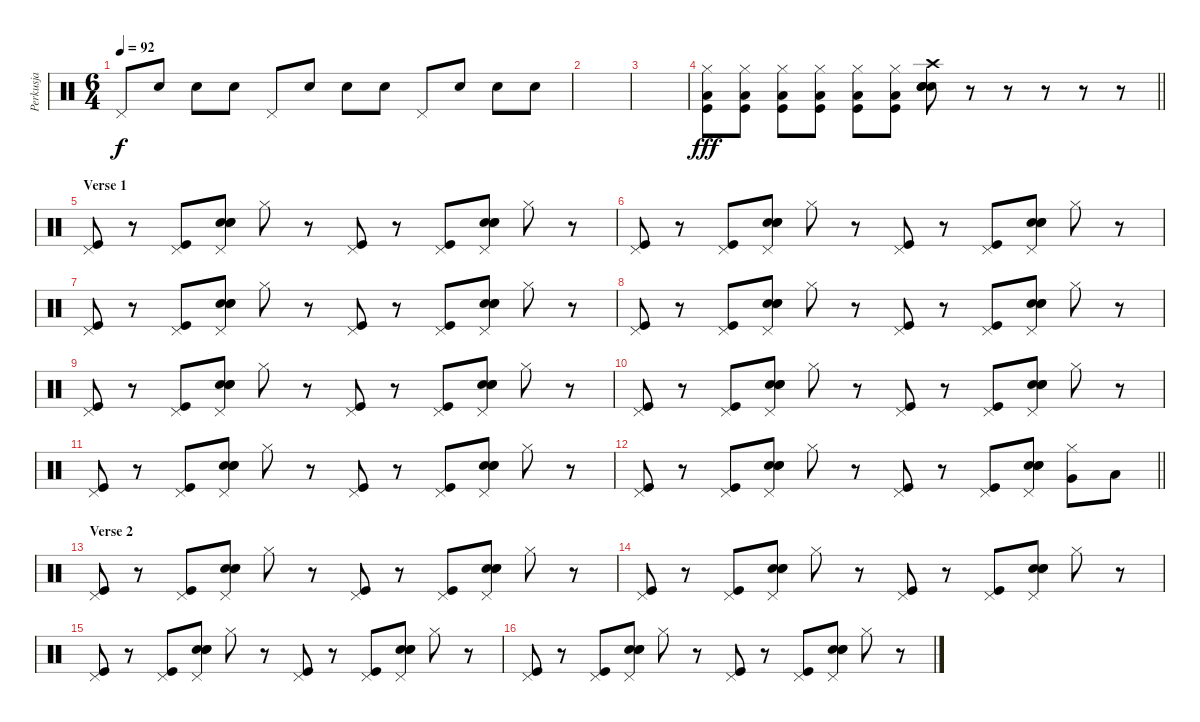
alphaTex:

\track ("Perkusja" "Perkusja") {instrument percussion}
\staff {score}
\articulation defaults
\ts (6 4)
\tempo 92
\clef neutral
\ks c "Pedal Hi-Hat (hit)".8{dy f} "Electric Snare (hit)".8 "Electric Snare (hit)".8 "Electric Snare (hit)".8 "Pedal Hi-Hat (hit)".8 "Electric Snare (hit)".8 "Electric Snare (hit)".8 "Electric Snare (hit)".8 "Pedal Hi-Hat (hit)".8 "Electric Snare (hit)".8 "Electric Snare (hit)".8 "Electric Snare (hit)".8
|
|
|
\barLineRight lightlight
("Hi-Hat (closed)" "Low Tom (hit)" "Kick (hit)").8{dy fff} ("Hi-Hat (closed)" "Low Tom (hit)" "Kick (hit)").8 ("Hi-Hat (closed)" "Low Tom (hit)" "Kick (hit)").8 ("Hi-Hat (closed)" "Low Tom (hit)" "Kick (hit)").8 ("Hi-Hat (closed)" "Low Tom (hit)" "Kick (hit)").8 ("Hi-Hat (closed)" "Low Tom (hit)" "Kick (hit)").8 ("Crash high (hit)" "Electric Snare (hit)" "Electric Snare (hit)" "Electric Snare (hit)").8 r.8 r.8 r.8 r.8 r.8 |
\section ("" "Verse 1")
("Pedal Hi-Hat (hit)" "Kick (hit)").8 r.8 ("Pedal Hi-Hat (hit)" "Kick (hit)").8 ("Pedal Hi-Hat (hit)" "Electric Snare (hit)" "Electric Snare (hit)" "Electric Snare (hit)").8 "Hi-Hat (closed)".8 r.8 ("Pedal Hi-Hat (hit)" "Kick (hit)").8 r.8 ("Pedal Hi-Hat (hit)" "Kick (hit)").8 ("Pedal Hi-Hat (hit)" "Electric Snare (hit)" "Electric Snare (hit)" "Electric Snare (hit)").8 "Hi-Hat (closed)".8 r.8 |
("Pedal Hi-Hat (hit)" "Kick (hit)").8 r.8 ("Pedal Hi-Hat (hit)" "Kick (hit)").8 ("Pedal Hi-Hat (hit)" "Electric Snare (hit)" "Electric Snare (hit)" "Electric Snare (hit)").8 "Hi-Hat (closed)".8 r.8 ("Pedal Hi-Hat (hit)" "Kick (hit)").8 r.8 ("Pedal Hi-Hat (hit)" "Kick (hit)").8 ("Pedal Hi-Hat (hit)" "Electric Snare (hit)" "Electric Snare (hit)" "Electric Snare (hit)").8 "Hi-Hat (closed)".8 r.8 |
("Pedal Hi-Hat (hit)" "Kick (hit)").8 r.8 ("Pedal Hi-Hat (hit)" "Kick (hit)").8 ("Pedal Hi-Hat (hit)" "Electric Snare (hit)" "Electric Snare (hit)" "Electric Snare (hit)").8 "Hi-Hat (closed)".8 r.8 ("Pedal Hi-Hat (hit)" "Kick (hit)").8 r.8 ("Pedal Hi-Hat (hit)" "Kick (hit)").8 ("Pedal Hi-Hat (hit)" "Electric Snare (hit)" "Electric Snare (hit)" "Electric Snare (hit)").8 "Hi-Hat (closed)".8 r.8 |
("Pedal Hi-Hat (hit)" "Kick (hit)").8 r.8 ("Pedal Hi-Hat (hit)" "Kick (hit)").8 ("Pedal Hi-Hat (hit)" "Electric Snare (hit)" "Electric Snare (hit)" "Electric Snare (hit)").8 "Hi-Hat (closed)".8 r.8 ("Pedal Hi-Hat (hit)" "Kick (hit)").8 r.8 ("Pedal Hi-Hat (hit)" "Kick (hit)").8 ("Pedal Hi-Hat (hit)" "Electric Snare (hit)" "Electric Snare (hit)" "Electric Snare (hit)").8 "Hi-Hat (closed)".8 r.8 |
("Pedal Hi-Hat (hit)" "Kick (hit)").8 r.8 ("Pedal Hi-Hat (hit)" "Kick (hit)").8 ("Pedal Hi-Hat (hit)" "Electric Snare (hit)" "Electric Snare (hit)" "Electric Snare (hit)").8 "Hi-Hat (closed)".8 r.8 ("Pedal Hi-Hat (hit)" "Kick (hit)").8 r.8 ("Pedal Hi-Hat (hit)" "Kick (hit)").8 ("Pedal Hi-Hat (hit)" "Electric Snare (hit)" "Electric Snare (hit)" "Electric Snare (hit)").8 "Hi-Hat (closed)".8 r.8 |
("Pedal Hi-Hat (hit)" "Kick (hit)").8 r.8 ("Pedal Hi-Hat (hit)" "Kick (hit)").8 ("Pedal Hi-Hat (hit)" "Electric Snare (hit)" "Electric Snare (hit)" "Electric Snare (hit)").8 "Hi-Hat (closed)".8 r.8 ("Pedal Hi-Hat (hit)" "Kick (hit)").8 r.8 ("Pedal Hi-Hat (hit)" "Kick (hit)").8 ("Pedal Hi-Hat (hit)" "Electric Snare (hit)" "Electric Snare (hit)" "Electric Snare (hit)").8 "Hi-Hat (closed)".8 r.8 |
("Pedal Hi-Hat (hit)" "Kick (hit)").8 r.8 ("Pedal Hi-Hat (hit)" "Kick (hit)").8 ("Pedal Hi-Hat (hit)" "Electric Snare (hit)" "Electric Snare (hit)" "Electric Snare (hit)").8 "Hi-Hat (closed)".8 r.8 ("Pedal Hi-Hat (hit)" "Kick (hit)").8 r.8 ("Pedal Hi-Hat (hit)" "Kick (hit)").8 ("Pedal Hi-Hat (hit)" "Electric Snare (hit)" "Electric Snare (hit)" "Electric Snare (hit)").8 "Hi-Hat (closed)".8 r.8 |
\barLineRight lightlight
("Pedal Hi-Hat (hit)" "Kick (hit)").8 r.8 ("Pedal Hi-Hat (hit)" "Kick (hit)").8 ("Pedal Hi-Hat (hit)" "Electric Snare (hit)" "Electric Snare (hit)" "Electric Snare (hit)").8 "Hi-Hat (closed)".8 r.8 ("Pedal Hi-Hat (hit)" "Kick (hit)").8 r.8 ("Pedal Hi-Hat (hit)" "Kick (hit)").8 ("Pedal Hi-Hat (hit)" "Electric Snare (hit)" "Electric Snare (hit)" "Electric Snare (hit)").8 ("Hi-Hat (closed)" "Very Low Tom (hit)").8 "Low Tom (hit)".8 |
\section ("" "Verse 2")
("Pedal Hi-Hat (hit)" "Kick (hit)").8 r.8 ("Pedal Hi-Hat (hit)" "Kick (hit)").8 ("Pedal Hi-Hat (hit)" "Electric Snare (hit)" "Electric Snare (hit)" "Electric Snare (hit)").8 "Hi-Hat (closed)".8 r.8 ("Pedal Hi-Hat (hit)" "Kick (hit)").8 r.8 ("Pedal Hi-Hat (hit)" "Kick (hit)").8 ("Pedal Hi-Hat (hit)" "Electric Snare (hit)" "Electric Snare (hit)" "Electric Snare (hit)").8 "Hi-Hat (closed)".8 r.8 |
("Pedal Hi-Hat (hit)" "Kick (hit)").8 r.8 ("Pedal Hi-Hat (hit)" "Kick (hit)").8 ("Pedal Hi-Hat (hit)" "Electric Snare (hit)" "Electric Snare (hit)" "Electric Snare (hit)").8 "Hi-Hat (closed)".8 r.8 ("Pedal Hi-Hat (hit)" "Kick (hit)").8 r.8 ("Pedal Hi-Hat (hit)" "Kick (hit)").8 ("Pedal Hi-Hat (hit)" "Electric Snare (hit)" "Electric Snare (hit)" "Electric Snare (hit)").8 "Hi-Hat (closed)".8 r.8 |
("Pedal Hi-Hat (hit)" "Kick (hit)").8 r.8 ("Pedal Hi-Hat (hit)" "Kick (hit)").8 ("Pedal Hi-Hat (hit)" "Electric Snare (hit)" "Electric Snare (hit)" "Electric Snare (hit)").8 "Hi-Hat (closed)".8 r.8 ("Pedal Hi-Hat (hit)" "Kick (hit)").8 r.8 ("Pedal Hi-Hat (hit)" "Kick (hit)").8 ("Pedal Hi-Hat (hit)" "Electric Snare (hit)" "Electric Snare (hit)" "Electric Snare (hit)").8 "Hi-Hat (closed)".8 r.8 |
("Pedal Hi-Hat (hit)" "Kick (hit)").8 r.8 ("Pedal Hi-Hat (hit)" "Kick (hit)").8 ("Pedal Hi-Hat (hit)" "Electric Snare (hit)" "Electric Snare (hit)" "Electric Snare (hit)").8 "Hi-Hat (closed)".8 r.8 ("Pedal Hi-Hat (hit)" "Kick (hit)").8 r.8 ("Pedal Hi-Hat (hit)" "Kick (hit)").8 ("Pedal Hi-Hat (hit)" "Electric Snare (hit)" "Electric Snare (hit)" "Electric Snare (hit)").8 "Hi-Hat (closed)".8 r.8
